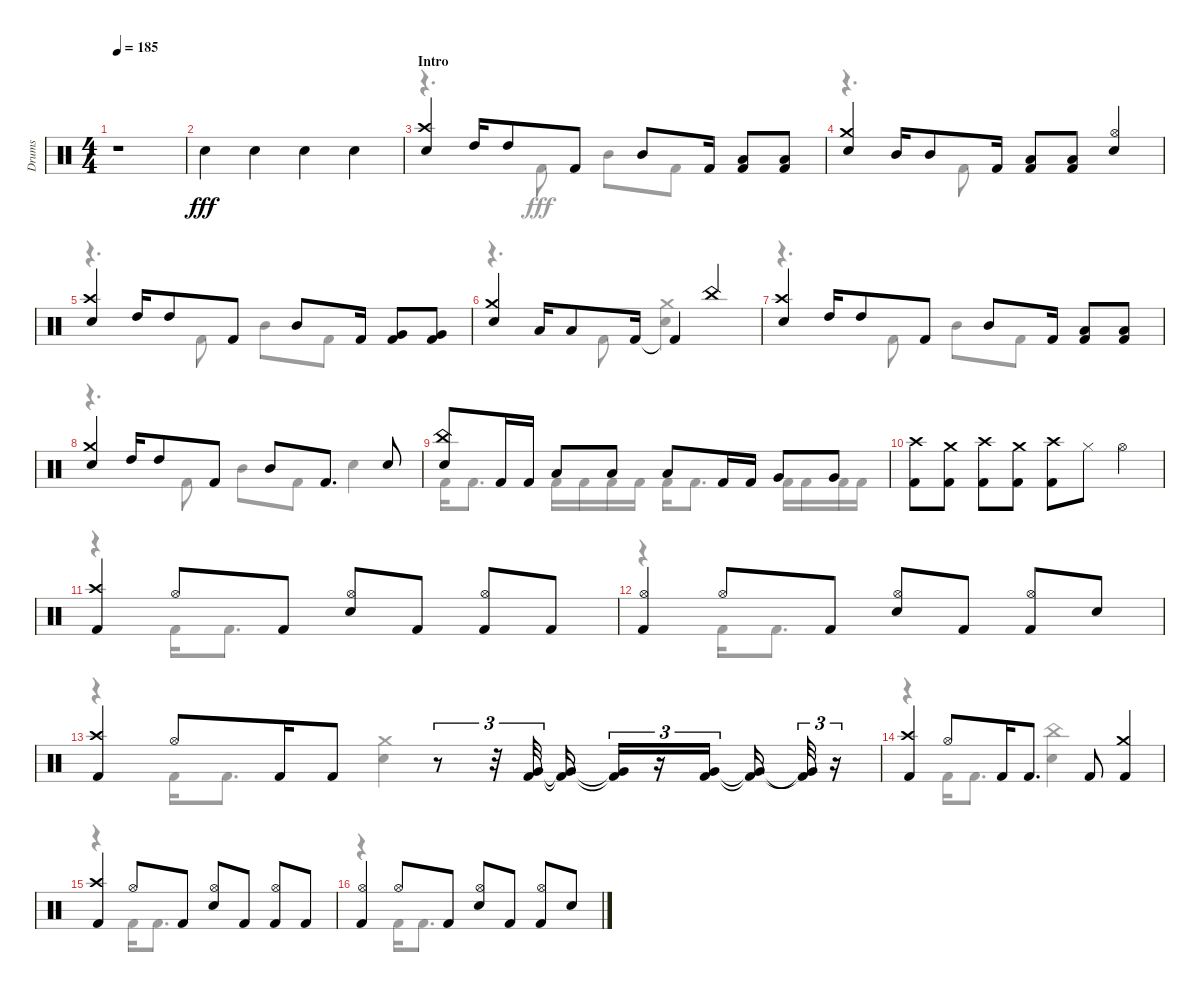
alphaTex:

\track ("Drums" "Drums") {instrument percussion}
\staff {score}
\articulation defaults
\voice
\ts (4 4)
\tempo 185
\clef neutral
\ks aminor
r.1{dy fff} |
"Snare (hit) 2".4 "Snare (hit) 2".4 "Snare (hit) 2".4 "Snare (hit) 2".4 |
\section ("" "Intro")
("Snare (hit) 2" "Crash high (hit)").4 "High Tom (hit)".16 "High Tom (hit)".8 "Kick (hit) 2".8 "Mid Tom (hit)".8 "Kick (hit) 2".16 ("Low Tom (hit)" "Kick (hit) 2").8 ("Low Tom (hit)" "Kick (hit) 2").8 |
("Crash medium (hit)" "Snare (hit) 2").4 "Mid Tom (hit)".16 "Mid Tom (hit)".8 "Kick (hit) 2".16 ("Kick (hit) 2" "Low Tom (hit)").8 ("Low Tom (hit)" "Kick (hit) 2").8 ("Snare (hit) 2" "Hi-Hat (open)").4 |
("Snare (hit) 2" "Crash high (hit)").4 "High Tom (hit)".16 "High Tom (hit)".8 "Kick (hit) 2".8 "Mid Tom (hit)".8 "Kick (hit) 2".16 ("Kick (hit) 2" "Very Low Tom (hit)").8 ("Very Low Tom (hit)" "Kick (hit) 2").8 |
("Snare (hit) 2" "Crash medium (hit)").4 "Low Tom (hit)".16 "Low Tom (hit)".8 "Kick (hit) 2".16 "Kick (hit) 2"{t}.4 "China (hit)".4 |
("Crash high (hit)" "Snare (hit) 2").4 "High Tom (hit)".16 "High Tom (hit)".8 "Kick (hit) 2".8 "Mid Tom (hit)".8 "Kick (hit) 2".16 ("Kick (hit) 2" "Low Tom (hit)").8 ("Low Tom (hit)" "Kick (hit) 2").8 |
("Crash medium (hit)" "Snare (hit) 2").4 "High Tom (hit)".16 "High Tom (hit)".8 "Kick (hit) 2".8 "Mid Tom (hit)".8 "Kick (hit) 2".8{d} "Snare (hit) 2".8 |
("China (hit)" "Snare (hit) 2").8 "Kick (hit) 2".16 "Kick (hit) 2".16 "Low Tom (hit)".8 "Low Tom (hit)".8 "Low Tom (hit)".8 "Kick (hit) 2".16 "Kick (hit) 2".16 "Very Low Tom (hit)".8 "Very Low Tom (hit)".8 |
("Crash high (hit)" "Kick (hit) 2").8 ("Kick (hit) 2" "Crash medium (hit)").8 ("Crash high (hit)" "Kick (hit) 2").8 ("Crash medium (hit)" "Kick (hit) 2").8 ("Crash high (hit)" "Kick (hit) 2").8 "Hi-Hat (closed)".8 "Hi-Hat (open)".4 |
("Kick (hit) 2" "Crash high (hit)").4 "Hi-Hat (open)".8 "Kick (hit) 2".8 ("Snare (hit) 2" "Hi-Hat (open)").8 "Kick (hit) 2".8 ("Kick (hit) 2" "Hi-Hat (open)").8 "Kick (hit) 2".8 |
("Kick (hit) 2" "Hi-Hat (open)").4 "Hi-Hat (open)".8 "Kick (hit) 2".8 ("Snare (hit) 2" "Hi-Hat (open)").8 "Kick (hit) 2".8 ("Hi-Hat (open)" "Kick (hit) 2").8 "Snare (hit) 2".8 |
("Kick (hit) 2" "Crash high (hit)").4 "Hi-Hat (open)".8 "Kick (hit) 2".16 "Kick (hit) 2".8 r.8{tu (3 2)} r.32{tu (3 2)} ("Kick (hit) 2" "Very Low Tom (hit)").32{tu (3 2)} ("Kick (hit) 2"{t} "Very Low Tom (hit)"{t}).16 ("Kick (hit) 2"{t} "Very Low Tom (hit)"{t}).16{tu (3 2)} r.16{tu (3 2)} ("Very Low Tom (hit)" "Kick (hit) 2").16{tu (3 2)} ("Very Low Tom (hit)"{t} "Kick (hit) 2"{t}).16 ("Kick (hit) 2"{t} "Very Low Tom (hit)"{t}).32{tu (3 2)} r.16{tu (3 2)} |
("Crash high (hit)" "Kick (hit) 2").4 "Hi-Hat (open)".8 "Kick (hit) 2".16 "Kick (hit) 2".8{d} "Kick (hit) 2".8 ("Crash medium (hit)" "Kick (hit) 2").4 |
("Crash high (hit)" "Kick (hit) 2").4 "Hi-Hat (open)".8 "Kick (hit) 2".8 ("Snare (hit) 2" "Hi-Hat (open)").8 "Kick (hit) 2".8 ("Hi-Hat (open)" "Kick (hit) 2").8 "Kick (hit) 2".8 |
("Kick (hit) 2" "Hi-Hat (open)").4 "Hi-Hat (open)".8 "Kick (hit) 2".8 ("Hi-Hat (open)" "Snare (hit) 2").8 "Kick (hit) 2".8 ("Hi-Hat (open)" "Kick (hit) 2").8 "Snare (hit) 2".8
\voice
\clef neutral
\ottava regular
\simile none
\ks aminor
|
|
r.4{d} "Kick (hit) 2".8 "Mid Tom (hit)".8 "Kick (hit) 2".8 |
r.4{d} "Kick (hit) 2".8 |
r.4{d} "Kick (hit) 2".8 "Mid Tom (hit)".8 "Kick (hit) 2".8 |
r.4{d} "Kick (hit) 2".8 ("Crash medium (hit)" "Snare (hit) 2").4 |
r.4{d} "Kick (hit) 2".8 "Mid Tom (hit)".8 "Kick (hit) 2".8 |
r.4{d} "Kick (hit) 2".8 "Mid Tom (hit)".8 "Kick (hit) 2".8 "Snare (hit) 2".4 |
"Kick (hit) 2".16 "Kick (hit) 2".8{d} "Kick (hit) 2".16 "Kick (hit) 2".16 "Kick (hit) 2".16 "Kick (hit) 2".16 "Kick (hit) 2".16 "Kick (hit) 2".8{d} "Kick (hit) 2".16 "Kick (hit) 2".16 "Kick (hit) 2".16 "Kick (hit) 2".16 |
|
r.4 "Kick (hit) 2".16 "Kick (hit) 2".8{d} |
r.4 "Kick (hit) 2".16 "Kick (hit) 2".8{d} |
r.4 "Kick (hit) 2".16 "Kick (hit) 2".8{d} ("Snare (hit) 2" "Crash medium (hit)").4 |
r.4 "Kick (hit) 2".16 "Kick (hit) 2".8{d} ("Snare (hit) 2" "China (hit)").4 |
r.4 "Kick (hit) 2".16 "Kick (hit) 2".8{d} |
r.4 "Kick (hit) 2".16 "Kick (hit) 2".8{d}
